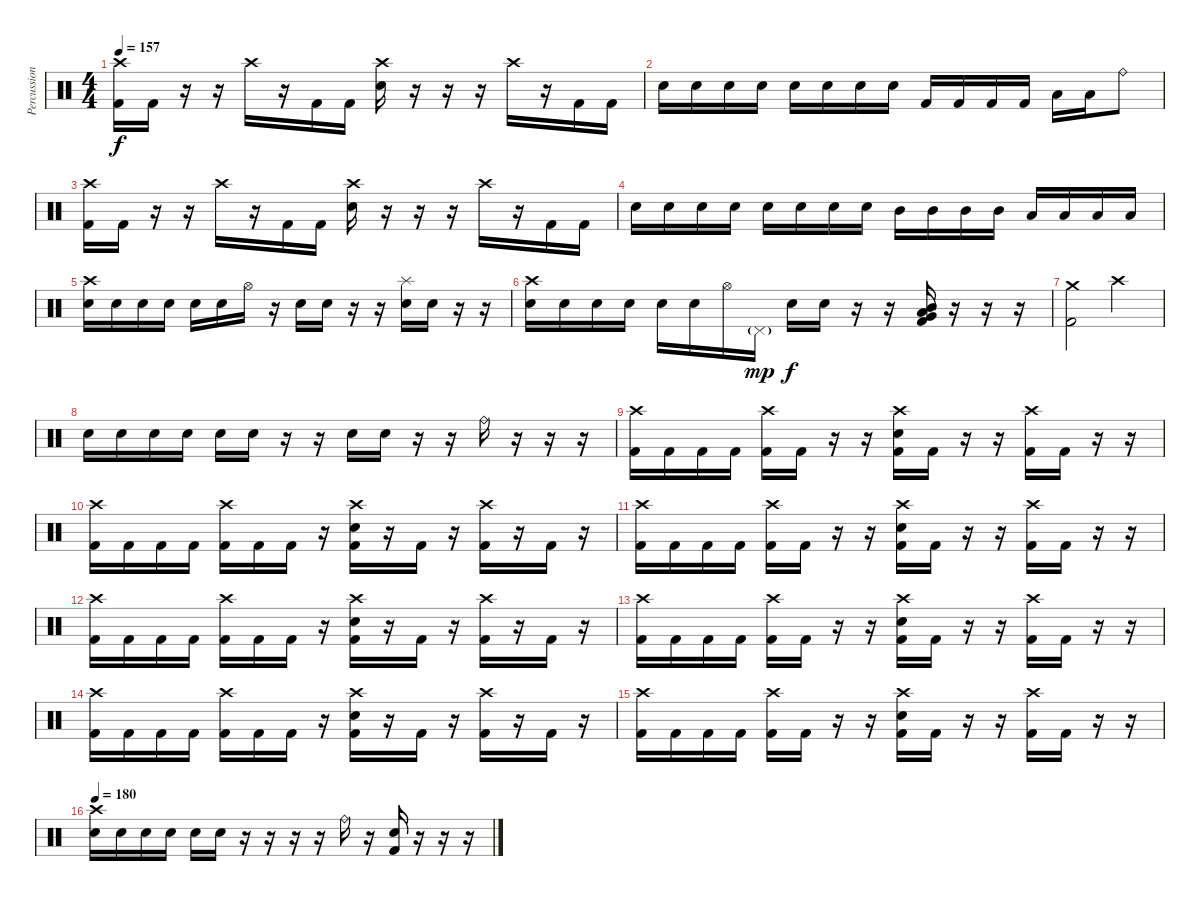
\track ("Percussion" "Percussion") {instrument percussion}
\staff {score}
\articulation defaults
\ts (4 4)
\tempo 157
\clef neutral
\ks c
("Crash high (hit)" "Kick (hit) 2").16{dy f} "Kick (hit) 2".16 r.16 r.16 "Crash high (hit)".16 r.16 "Kick (hit) 2".16 "Kick (hit) 2".16 ("Crash high (hit)" "Electric Snare (hit)").16 r.16 r.16 r.16 "Crash high (hit)".16 r.16 "Kick (hit) 2".16 "Kick (hit) 2".16 |
"Electric Snare (hit)".16 "Electric Snare (hit)".16 "Electric Snare (hit)".16 "Electric Snare (hit)".16 "Electric Snare (hit)".16 "Electric Snare (hit)".16 "Electric Snare (hit)".16 "Electric Snare (hit)".16 "Kick (hit) 2".16 "Kick (hit) 2".16 "Kick (hit) 2".16 "Kick (hit) 2".16 "Low Tom (hit)".16 "Low Tom (hit)".16 "Ride (bell)".8 |
("Crash high (hit)" "Kick (hit) 2").16 "Kick (hit) 2".16 r.16 r.16 "Crash high (hit)".16 r.16 "Kick (hit) 2".16 "Kick (hit) 2".16 ("Crash high (hit)" "Electric Snare (hit)").16 r.16 r.16 r.16 "Crash high (hit)".16 r.16 "Kick (hit) 2".16 "Kick (hit) 2".16 |
"Electric Snare (hit)".16 "Electric Snare (hit)".16 "Electric Snare (hit)".16 "Electric Snare (hit)".16 "Electric Snare (hit)".16 "Electric Snare (hit)".16 "Electric Snare (hit)".16 "Electric Snare (hit)".16 "Mid Tom (hit)".16 "Mid Tom (hit)".16 "Mid Tom (hit)".16 "Mid Tom (hit)".16 "Low Tom (hit)".16 "Low Tom (hit)".16 "Low Tom (hit)".16 "Low Tom (hit)".16 |
("Crash high (hit)" "Electric Snare (hit)").16 "Electric Snare (hit)".16 "Electric Snare (hit)".16 "Electric Snare (hit)".16 "Electric Snare (hit)".16 "Electric Snare (hit)".16 "Hi-Hat (open)".16 r.16 "Electric Snare (hit)".16 "Electric Snare (hit)".16 r.16 r.16 ("Splash (hit)" "Electric Snare (hit)").16 "Electric Snare (hit)".16 r.16 r.16 |
("Crash high (hit)" "Electric Snare (hit)").16 "Electric Snare (hit)".16 "Electric Snare (hit)".16 "Electric Snare (hit)".16 "Electric Snare (hit)".16 "Electric Snare (hit)".16 "Hi-Hat (open)".16 "Pedal Hi-Hat (hit)"{g}.16{dy mp} "Electric Snare (hit)".16{dy f} "Electric Snare (hit)".16 r.16 r.16 ("Mid Tom (hit)" "Low Tom (hit)" "Very Low Tom (hit)" "Kick (hit) 2").16 r.16 r.16 r.16 |
("Crash medium (hit)" "Kick (hit) 2").2 "Crash high (hit)".2 |
"Electric Snare (hit)".16 "Electric Snare (hit)".16 "Electric Snare (hit)".16 "Electric Snare (hit)".16 "Electric Snare (hit)".16 "Electric Snare (hit)".16 r.16 r.16 "Electric Snare (hit)".16 "Electric Snare (hit)".16 r.16 r.16 "Ride (bell)".16 r.16 r.16 r.16 |
("Crash high (hit)" "Kick (hit) 2").16 "Kick (hit) 2".16 "Kick (hit) 2".16 "Kick (hit) 2".16 ("Crash high (hit)" "Kick (hit) 2").16 "Kick (hit) 2".16 r.16 r.16 ("Crash high (hit)" "Electric Snare (hit)" "Kick (hit) 2").16 "Kick (hit) 2".16 r.16 r.16 ("Crash high (hit)" "Kick (hit) 2").16 "Kick (hit) 2".16 r.16 r.16 |
("Crash high (hit)" "Kick (hit) 2").16 "Kick (hit) 2".16 "Kick (hit) 2".16 "Kick (hit) 2".16 ("Crash high (hit)" "Kick (hit) 2").16 "Kick (hit) 2".16 "Kick (hit) 2".16 r.16 ("Crash high (hit)" "Electric Snare (hit)" "Kick (hit) 2").16 r.16 "Kick (hit) 2".16 r.16 ("Crash high (hit)" "Kick (hit) 2").16 r.16 "Kick (hit) 2".16 r.16 |
("Crash high (hit)" "Kick (hit) 2").16 "Kick (hit) 2".16 "Kick (hit) 2".16 "Kick (hit) 2".16 ("Crash high (hit)" "Kick (hit) 2").16 "Kick (hit) 2".16 r.16 r.16 ("Crash high (hit)" "Electric Snare (hit)" "Kick (hit) 2").16 "Kick (hit) 2".16 r.16 r.16 ("Crash high (hit)" "Kick (hit) 2").16 "Kick (hit) 2".16 r.16 r.16 |
("Crash high (hit)" "Kick (hit) 2").16 "Kick (hit) 2".16 "Kick (hit) 2".16 "Kick (hit) 2".16 ("Crash high (hit)" "Kick (hit) 2").16 "Kick (hit) 2".16 "Kick (hit) 2".16 r.16 ("Crash high (hit)" "Electric Snare (hit)" "Kick (hit) 2").16 r.16 "Kick (hit) 2".16 r.16 ("Crash high (hit)" "Kick (hit) 2").16 r.16 "Kick (hit) 2".16 r.16 |
("Crash high (hit)" "Kick (hit) 2").16 "Kick (hit) 2".16 "Kick (hit) 2".16 "Kick (hit) 2".16 ("Crash high (hit)" "Kick (hit) 2").16 "Kick (hit) 2".16 r.16 r.16 ("Crash high (hit)" "Electric Snare (hit)" "Kick (hit) 2").16 "Kick (hit) 2".16 r.16 r.16 ("Crash high (hit)" "Kick (hit) 2").16 "Kick (hit) 2".16 r.16 r.16 |
("Crash high (hit)" "Kick (hit) 2").16 "Kick (hit) 2".16 "Kick (hit) 2".16 "Kick (hit) 2".16 ("Crash high (hit)" "Kick (hit) 2").16 "Kick (hit) 2".16 "Kick (hit) 2".16 r.16 ("Crash high (hit)" "Electric Snare (hit)" "Kick (hit) 2").16 r.16 "Kick (hit) 2".16 r.16 ("Crash high (hit)" "Kick (hit) 2").16 r.16 "Kick (hit) 2".16 r.16 |
("Crash high (hit)" "Kick (hit) 2").16 "Kick (hit) 2".16 "Kick (hit) 2".16 "Kick (hit) 2".16 ("Crash high (hit)" "Kick (hit) 2").16 "Kick (hit) 2".16 r.16 r.16 ("Crash high (hit)" "Electric Snare (hit)" "Kick (hit) 2").16 "Kick (hit) 2".16 r.16 r.16 ("Crash high (hit)" "Kick (hit) 2").16 "Kick (hit) 2".16 r.16 r.16 |
\tempo 180
("Crash high (hit)" "Electric Snare (hit)").16 "Electric Snare (hit)".16 "Electric Snare (hit)".16 "Electric Snare (hit)".16 "Electric Snare (hit)".16 "Electric Snare (hit)".16 r.16 r.16 r.16 r.16 "Ride (bell)".16 r.16 ("Electric Snare (hit)" "Kick (hit) 2").16 r.16 r.16 r.16
